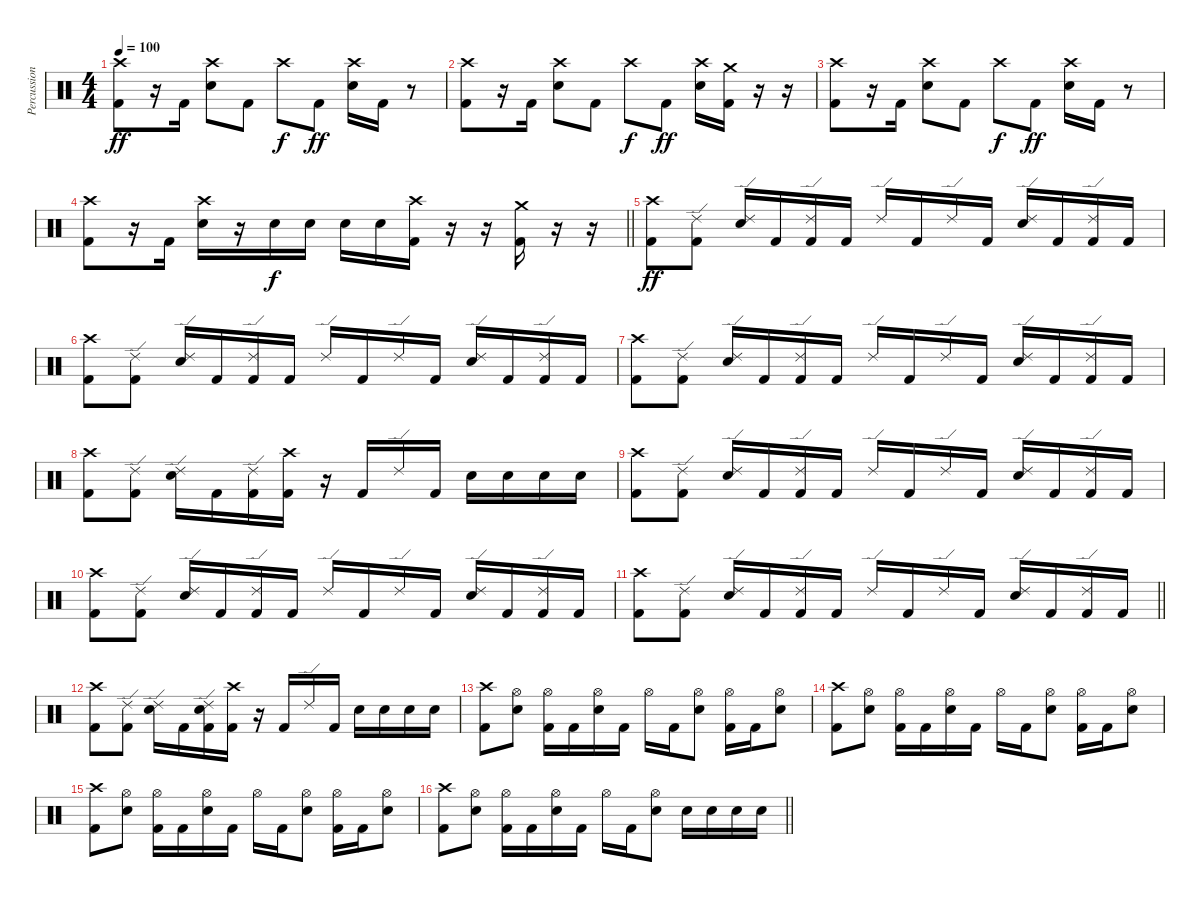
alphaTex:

\track ("Percussion" "Percussion") {instrument percussion}
\staff {score}
\articulation defaults
\ts (4 4)
\tempo 100
\clef neutral
\ks c
("Crash high (hit)" "Kick (hit) 2").8{dy ff} r.16 "Kick (hit) 2".16 ("Crash high (hit)" "Electric Snare (hit)").8 "Kick (hit) 2".8 "Crash high (hit)".8{dy f} "Kick (hit) 2".8{dy ff} ("Crash high (hit)" "Electric Snare (hit)").16 "Kick (hit) 2".16 r.8 |
("Crash high (hit)" "Kick (hit) 2").8 r.16 "Kick (hit) 2".16 ("Crash high (hit)" "Electric Snare (hit)").8 "Kick (hit) 2".8 "Crash high (hit)".8{dy f} "Kick (hit) 2".8{dy ff} ("Crash high (hit)" "Electric Snare (hit)").16 ("Crash medium (hit)" "Kick (hit) 2").16 r.16 r.16 |
("Crash high (hit)" "Kick (hit) 2").8 r.16 "Kick (hit) 2".16 ("Crash high (hit)" "Electric Snare (hit)").8 "Kick (hit) 2".8 "Crash high (hit)".8{dy f} "Kick (hit) 2".8{dy ff} ("Crash high (hit)" "Electric Snare (hit)").16 "Kick (hit) 2".16 r.8 |
\barLineRight lightlight
("Crash high (hit)" "Kick (hit) 2").8 r.16 "Kick (hit) 2".16 ("Crash high (hit)" "Electric Snare (hit)").16 r.16 "Electric Snare (hit)".16{dy f} "Electric Snare (hit)".16 "Electric Snare (hit)".16 "Electric Snare (hit)".16 ("Crash high (hit)" "Kick (hit) 2").16 r.16 r.16 ("Crash medium (hit)" "Kick (hit) 2").16 r.16 r.16 |
("Crash high (hit)" "Kick (hit) 2").8{dy ff} ("Ride (edge) 2" "Kick (hit) 2").8 ("Ride (edge) 2" "Electric Snare (hit)").16 "Kick (hit) 2".16 ("Ride (edge) 2" "Kick (hit) 2").16 "Kick (hit) 2".16 "Ride (edge) 2".16 "Kick (hit) 2".16 "Ride (edge) 2".16 "Kick (hit) 2".16 ("Ride (edge) 2" "Electric Snare (hit)").16 "Kick (hit) 2".16 ("Ride (edge) 2" "Kick (hit) 2").16 "Kick (hit) 2".16 |
("Crash high (hit)" "Kick (hit) 2").8 ("Ride (edge) 2" "Kick (hit) 2").8 ("Ride (edge) 2" "Electric Snare (hit)").16 "Kick (hit) 2".16 ("Ride (edge) 2" "Kick (hit) 2").16 "Kick (hit) 2".16 "Ride (edge) 2".16 "Kick (hit) 2".16 "Ride (edge) 2".16 "Kick (hit) 2".16 ("Ride (edge) 2" "Electric Snare (hit)").16 "Kick (hit) 2".16 ("Ride (edge) 2" "Kick (hit) 2").16 "Kick (hit) 2".16 |
("Crash high (hit)" "Kick (hit) 2").8 ("Ride (edge) 2" "Kick (hit) 2").8 ("Ride (edge) 2" "Electric Snare (hit)").16 "Kick (hit) 2".16 ("Ride (edge) 2" "Kick (hit) 2").16 "Kick (hit) 2".16 "Ride (edge) 2".16 "Kick (hit) 2".16 "Ride (edge) 2".16 "Kick (hit) 2".16 ("Ride (edge) 2" "Electric Snare (hit)").16 "Kick (hit) 2".16 ("Ride (edge) 2" "Kick (hit) 2").16 "Kick (hit) 2".16 |
("Crash high (hit)" "Kick (hit) 2").8 ("Ride (edge) 2" "Kick (hit) 2").8 ("Ride (edge) 2" "Electric Snare (hit)").16 "Kick (hit) 2".16 ("Ride (edge) 2" "Kick (hit) 2").16 ("Crash high (hit)" "Kick (hit) 2").16 r.16 "Kick (hit) 2".16 "Ride (edge) 2".16 "Kick (hit) 2".16 "Electric Snare (hit)".16 "Electric Snare (hit)".16 "Electric Snare (hit)".16 "Electric Snare (hit)".16 |
("Crash high (hit)" "Kick (hit) 2").8 ("Ride (edge) 2" "Kick (hit) 2").8 ("Ride (edge) 2" "Electric Snare (hit)").16 "Kick (hit) 2".16 ("Ride (edge) 2" "Kick (hit) 2").16 "Kick (hit) 2".16 "Ride (edge) 2".16 "Kick (hit) 2".16 "Ride (edge) 2".16 "Kick (hit) 2".16 ("Ride (edge) 2" "Electric Snare (hit)").16 "Kick (hit) 2".16 ("Ride (edge) 2" "Kick (hit) 2").16 "Kick (hit) 2".16 |
("Crash high (hit)" "Kick (hit) 2").8 ("Ride (edge) 2" "Kick (hit) 2").8 ("Ride (edge) 2" "Electric Snare (hit)").16 "Kick (hit) 2".16 ("Ride (edge) 2" "Kick (hit) 2").16 "Kick (hit) 2".16 "Ride (edge) 2".16 "Kick (hit) 2".16 "Ride (edge) 2".16 "Kick (hit) 2".16 ("Ride (edge) 2" "Electric Snare (hit)").16 "Kick (hit) 2".16 ("Ride (edge) 2" "Kick (hit) 2").16 "Kick (hit) 2".16 |
\barLineRight lightlight
("Crash high (hit)" "Kick (hit) 2").8 ("Ride (edge) 2" "Kick (hit) 2").8 ("Ride (edge) 2" "Electric Snare (hit)").16 "Kick (hit) 2".16 ("Ride (edge) 2" "Kick (hit) 2").16 "Kick (hit) 2".16 "Ride (edge) 2".16 "Kick (hit) 2".16 "Ride (edge) 2".16 "Kick (hit) 2".16 ("Ride (edge) 2" "Electric Snare (hit)").16 "Kick (hit) 2".16 ("Ride (edge) 2" "Kick (hit) 2").16 "Kick (hit) 2".16 |
("Crash high (hit)" "Kick (hit) 2").8 ("Ride (edge) 2" "Kick (hit) 2").8 ("Ride (edge) 2" "Electric Snare (hit)").16 "Kick (hit) 2".16 ("Ride (edge) 2" "Electric Snare (hit)" "Kick (hit) 2").16 ("Crash high (hit)" "Kick (hit) 2").16 r.16 "Kick (hit) 2".16 "Ride (edge) 2".16 "Kick (hit) 2".16 "Electric Snare (hit)".16 "Electric Snare (hit)".16 "Electric Snare (hit)".16 "Electric Snare (hit)".16 |
("Crash high (hit)" "Kick (hit) 2").8 ("Hi-Hat (open)" "Electric Snare (hit)").8 ("Hi-Hat (open)" "Kick (hit) 2").16 "Kick (hit) 2".16 ("Hi-Hat (open)" "Electric Snare (hit)").16 "Kick (hit) 2".16 "Hi-Hat (open)".16 "Kick (hit) 2".16 ("Hi-Hat (open)" "Electric Snare (hit)").8 ("Hi-Hat (open)" "Kick (hit) 2").16 "Kick (hit) 2".16 ("Hi-Hat (open)" "Electric Snare (hit)").8 |
("Crash high (hit)" "Kick (hit) 2").8 ("Hi-Hat (open)" "Electric Snare (hit)").8 ("Hi-Hat (open)" "Kick (hit) 2").16 "Kick (hit) 2".16 ("Hi-Hat (open)" "Electric Snare (hit)").16 "Kick (hit) 2".16 "Hi-Hat (open)".16 "Kick (hit) 2".16 ("Hi-Hat (open)" "Electric Snare (hit)").8 ("Hi-Hat (open)" "Kick (hit) 2").16 "Kick (hit) 2".16 ("Hi-Hat (open)" "Electric Snare (hit)").8 |
("Crash high (hit)" "Kick (hit) 2").8 ("Hi-Hat (open)" "Electric Snare (hit)").8 ("Hi-Hat (open)" "Kick (hit) 2").16 "Kick (hit) 2".16 ("Hi-Hat (open)" "Electric Snare (hit)").16 "Kick (hit) 2".16 "Hi-Hat (open)".16 "Kick (hit) 2".16 ("Hi-Hat (open)" "Electric Snare (hit)").8 ("Hi-Hat (open)" "Kick (hit) 2").16 "Kick (hit) 2".16 ("Hi-Hat (open)" "Electric Snare (hit)").8 |
\barLineRight lightlight
("Crash high (hit)" "Kick (hit) 2").8 ("Hi-Hat (open)" "Electric Snare (hit)").8 ("Hi-Hat (open)" "Kick (hit) 2").16 "Kick (hit) 2".16 ("Hi-Hat (open)" "Electric Snare (hit)").16 "Kick (hit) 2".16 "Hi-Hat (open)".16 "Kick (hit) 2".16 ("Hi-Hat (open)" "Electric Snare (hit)").8 "Electric Snare (hit)".16 "Electric Snare (hit)".16 "Electric Snare (hit)".16 "Electric Snare (hit)".16
